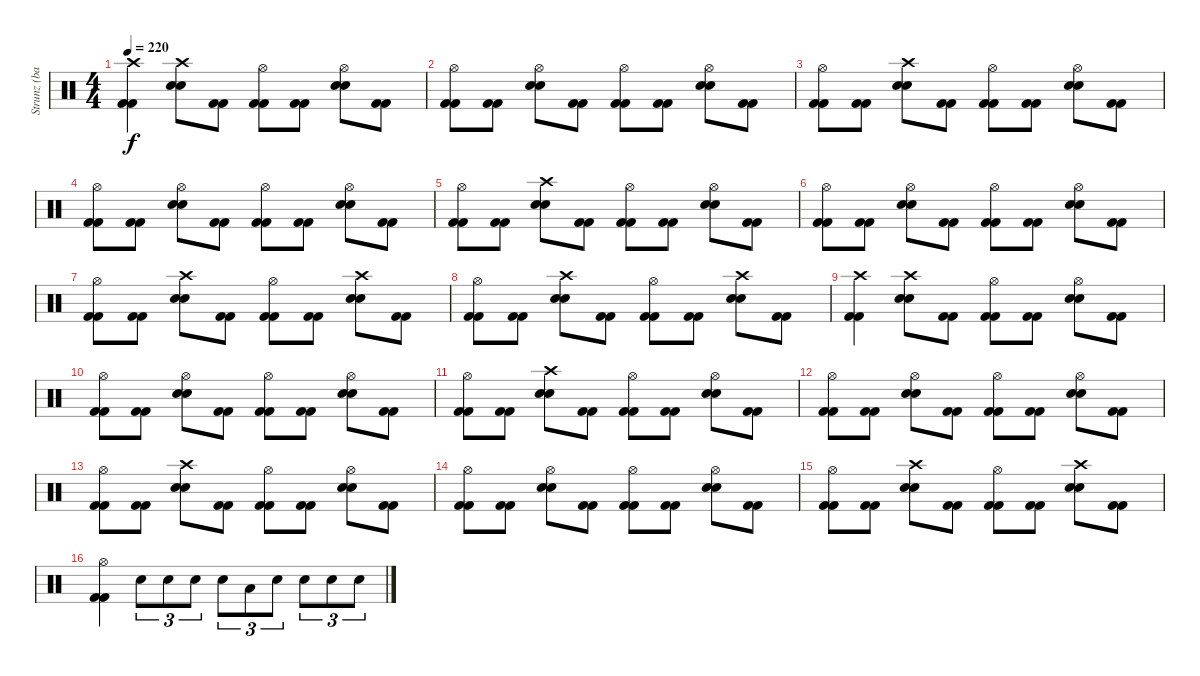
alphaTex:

\track ("Strunz (bateria)" "Strunz (ba") {instrument percussion}
\staff {score}
\articulation defaults
\ts (4 4)
\tempo 220
\clef neutral
\ks c
("Crash high (hit)" "Kick (hit) 2" "Kick (hit) 2").4{dy f} ("Crash high (hit)" "Snare (hit) 2" "Snare (hit) 2").8 ("Kick (hit) 2" "Kick (hit) 2").8 ("Hi-Hat (open)" "Kick (hit) 2" "Kick (hit) 2").8 ("Kick (hit) 2" "Kick (hit) 2").8 ("Hi-Hat (open)" "Snare (hit) 2" "Snare (hit) 2").8 ("Kick (hit) 2" "Kick (hit) 2").8 |
("Hi-Hat (open)" "Kick (hit) 2" "Kick (hit) 2").8 ("Kick (hit) 2" "Kick (hit) 2").8 ("Hi-Hat (open)" "Snare (hit) 2" "Snare (hit) 2").8 ("Kick (hit) 2" "Kick (hit) 2").8 ("Hi-Hat (open)" "Kick (hit) 2" "Kick (hit) 2").8 ("Kick (hit) 2" "Kick (hit) 2").8 ("Hi-Hat (open)" "Snare (hit) 2" "Snare (hit) 2").8 ("Kick (hit) 2" "Kick (hit) 2").8 |
("Hi-Hat (open)" "Kick (hit) 2" "Kick (hit) 2").8 ("Kick (hit) 2" "Kick (hit) 2").8 ("Crash high (hit)" "Snare (hit) 2" "Snare (hit) 2").8 ("Kick (hit) 2" "Kick (hit) 2").8 ("Hi-Hat (open)" "Kick (hit) 2" "Kick (hit) 2").8 ("Kick (hit) 2" "Kick (hit) 2").8 ("Hi-Hat (open)" "Snare (hit) 2" "Snare (hit) 2").8 ("Kick (hit) 2" "Kick (hit) 2").8 |
("Hi-Hat (open)" "Kick (hit) 2" "Kick (hit) 2").8 ("Kick (hit) 2" "Kick (hit) 2").8 ("Hi-Hat (open)" "Snare (hit) 2" "Snare (hit) 2").8 ("Kick (hit) 2" "Kick (hit) 2").8 ("Hi-Hat (open)" "Kick (hit) 2" "Kick (hit) 2").8 ("Kick (hit) 2" "Kick (hit) 2").8 ("Hi-Hat (open)" "Snare (hit) 2" "Snare (hit) 2").8 ("Kick (hit) 2" "Kick (hit) 2").8 |
("Hi-Hat (open)" "Kick (hit) 2" "Kick (hit) 2").8 ("Kick (hit) 2" "Kick (hit) 2").8 ("Crash high (hit)" "Snare (hit) 2" "Snare (hit) 2").8 ("Kick (hit) 2" "Kick (hit) 2").8 ("Hi-Hat (open)" "Kick (hit) 2" "Kick (hit) 2").8 ("Kick (hit) 2" "Kick (hit) 2").8 ("Hi-Hat (open)" "Snare (hit) 2" "Snare (hit) 2").8 ("Kick (hit) 2" "Kick (hit) 2").8 |
("Hi-Hat (open)" "Kick (hit) 2" "Kick (hit) 2").8 ("Kick (hit) 2" "Kick (hit) 2").8 ("Hi-Hat (open)" "Snare (hit) 2" "Snare (hit) 2").8 ("Kick (hit) 2" "Kick (hit) 2").8 ("Hi-Hat (open)" "Kick (hit) 2" "Kick (hit) 2").8 ("Kick (hit) 2" "Kick (hit) 2").8 ("Hi-Hat (open)" "Snare (hit) 2" "Snare (hit) 2").8 ("Kick (hit) 2" "Kick (hit) 2").8 |
("Hi-Hat (open)" "Kick (hit) 2" "Kick (hit) 2").8 ("Kick (hit) 2" "Kick (hit) 2").8 ("Crash high (hit)" "Snare (hit) 2" "Snare (hit) 2").8 ("Kick (hit) 2" "Kick (hit) 2").8 ("Hi-Hat (open)" "Kick (hit) 2" "Kick (hit) 2").8 ("Kick (hit) 2" "Kick (hit) 2").8 ("Crash high (hit)" "Snare (hit) 2" "Snare (hit) 2").8 ("Kick (hit) 2" "Kick (hit) 2").8 |
("Hi-Hat (open)" "Kick (hit) 2" "Kick (hit) 2").8 ("Kick (hit) 2" "Kick (hit) 2").8 ("Crash high (hit)" "Snare (hit) 2" "Snare (hit) 2").8 ("Kick (hit) 2" "Kick (hit) 2").8 ("Hi-Hat (open)" "Kick (hit) 2" "Kick (hit) 2").8 ("Kick (hit) 2" "Kick (hit) 2").8 ("Crash high (hit)" "Snare (hit) 2" "Snare (hit) 2").8 ("Kick (hit) 2" "Kick (hit) 2").8 |
("Crash high (hit)" "Kick (hit) 2" "Kick (hit) 2").4 ("Crash high (hit)" "Snare (hit) 2" "Snare (hit) 2").8 ("Kick (hit) 2" "Kick (hit) 2").8 ("Hi-Hat (open)" "Kick (hit) 2" "Kick (hit) 2").8 ("Kick (hit) 2" "Kick (hit) 2").8 ("Hi-Hat (open)" "Snare (hit) 2" "Snare (hit) 2").8 ("Kick (hit) 2" "Kick (hit) 2").8 |
("Hi-Hat (open)" "Kick (hit) 2" "Kick (hit) 2").8 ("Kick (hit) 2" "Kick (hit) 2").8 ("Hi-Hat (open)" "Snare (hit) 2" "Snare (hit) 2").8 ("Kick (hit) 2" "Kick (hit) 2").8 ("Hi-Hat (open)" "Kick (hit) 2" "Kick (hit) 2").8 ("Kick (hit) 2" "Kick (hit) 2").8 ("Hi-Hat (open)" "Snare (hit) 2" "Snare (hit) 2").8 ("Kick (hit) 2" "Kick (hit) 2").8 |
("Hi-Hat (open)" "Kick (hit) 2" "Kick (hit) 2").8 ("Kick (hit) 2" "Kick (hit) 2").8 ("Crash high (hit)" "Snare (hit) 2" "Snare (hit) 2").8 ("Kick (hit) 2" "Kick (hit) 2").8 ("Hi-Hat (open)" "Kick (hit) 2" "Kick (hit) 2").8 ("Kick (hit) 2" "Kick (hit) 2").8 ("Hi-Hat (open)" "Snare (hit) 2" "Snare (hit) 2").8 ("Kick (hit) 2" "Kick (hit) 2").8 |
("Hi-Hat (open)" "Kick (hit) 2" "Kick (hit) 2").8 ("Kick (hit) 2" "Kick (hit) 2").8 ("Hi-Hat (open)" "Snare (hit) 2" "Snare (hit) 2").8 ("Kick (hit) 2" "Kick (hit) 2").8 ("Hi-Hat (open)" "Kick (hit) 2" "Kick (hit) 2").8 ("Kick (hit) 2" "Kick (hit) 2").8 ("Hi-Hat (open)" "Snare (hit) 2" "Snare (hit) 2").8 ("Kick (hit) 2" "Kick (hit) 2").8 |
("Hi-Hat (open)" "Kick (hit) 2" "Kick (hit) 2").8 ("Kick (hit) 2" "Kick (hit) 2").8 ("Crash high (hit)" "Snare (hit) 2" "Snare (hit) 2").8 ("Kick (hit) 2" "Kick (hit) 2").8 ("Hi-Hat (open)" "Kick (hit) 2" "Kick (hit) 2").8 ("Kick (hit) 2" "Kick (hit) 2").8 ("Hi-Hat (open)" "Snare (hit) 2" "Snare (hit) 2").8 ("Kick (hit) 2" "Kick (hit) 2").8 |
("Hi-Hat (open)" "Kick (hit) 2" "Kick (hit) 2").8 ("Kick (hit) 2" "Kick (hit) 2").8 ("Hi-Hat (open)" "Snare (hit) 2" "Snare (hit) 2").8 ("Kick (hit) 2" "Kick (hit) 2").8 ("Hi-Hat (open)" "Kick (hit) 2" "Kick (hit) 2").8 ("Kick (hit) 2" "Kick (hit) 2").8 ("Hi-Hat (open)" "Snare (hit) 2" "Snare (hit) 2").8 ("Kick (hit) 2" "Kick (hit) 2").8 |
("Hi-Hat (open)" "Kick (hit) 2" "Kick (hit) 2").8 ("Kick (hit) 2" "Kick (hit) 2").8 ("Crash high (hit)" "Snare (hit) 2" "Snare (hit) 2").8 ("Kick (hit) 2" "Kick (hit) 2").8 ("Hi-Hat (open)" "Kick (hit) 2" "Kick (hit) 2").8 ("Kick (hit) 2" "Kick (hit) 2").8 ("Crash high (hit)" "Snare (hit) 2" "Snare (hit) 2").8 ("Kick (hit) 2" "Kick (hit) 2").8 |
("Hi-Hat (open)" "Kick (hit) 2" "Kick (hit) 2").4 "Snare (hit) 2".8{tu (3 2)} "Snare (hit) 2".8{tu (3 2)} "Snare (hit) 2".8{tu (3 2)} "Snare (hit) 2".8{tu (3 2)} "Low Tom (hit)".8{tu (3 2)} "Snare (hit) 2".8{tu (3 2)} "Snare (hit) 2".8{tu (3 2)} "Snare (hit) 2".8{tu (3 2)} "Snare (hit) 2".8{tu (3 2)}
